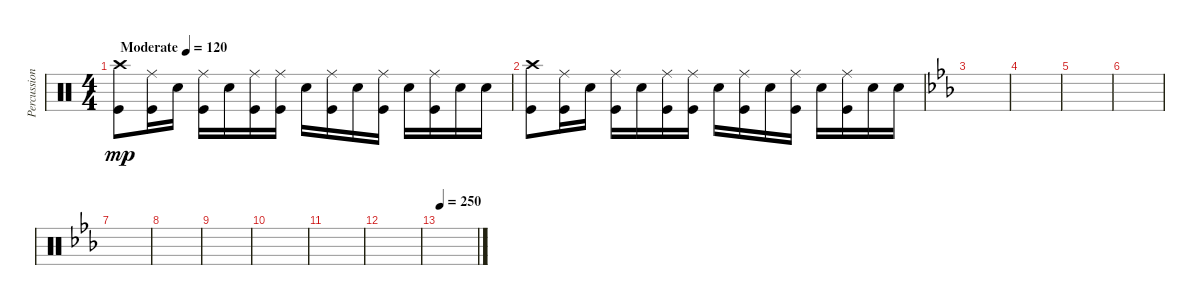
\track ("Percussion" "Percussion") {mute instrument percussion}
\staff {score}
\articulation defaults
\ts (4 4)
\tempo (120 "Moderate")
\tempo 150
\tempo (120 "Moderate")
\clef neutral
\ks c
("Crash high (hit)" "Kick (hit)").8{dy mp} ("Ride (middle)" "Kick (hit)").16 "Electric Snare (hit)".16 ("Ride (middle)" "Kick (hit)").16 "Electric Snare (hit)".16 ("Ride (middle)" "Kick (hit)").16 ("Ride (middle)" "Kick (hit)").16 "Electric Snare (hit)".16 ("Ride (middle)" "Kick (hit)").16 "Electric Snare (hit)".16 ("Ride (middle)" "Kick (hit)").16 "Electric Snare (hit)".16 ("Ride (middle)" "Kick (hit)").16 "Electric Snare (hit)".16 "Electric Snare (hit)".16 |
("Crash high (hit)" "Kick (hit)").8 ("Ride (middle)" "Kick (hit)").16 "Electric Snare (hit)".16 ("Ride (middle)" "Kick (hit)").16 "Electric Snare (hit)".16 ("Ride (middle)" "Kick (hit)").16 ("Ride (middle)" "Kick (hit)").16 "Electric Snare (hit)".16 ("Ride (middle)" "Kick (hit)").16 "Electric Snare (hit)".16 ("Ride (middle)" "Kick (hit)").16 "Electric Snare (hit)".16 ("Ride (middle)" "Kick (hit)").16 "Electric Snare (hit)".16 "Electric Snare (hit)".16 |
\ks cminor
|
|
|
|
|
|
|
|
|
|
\tempo 250
